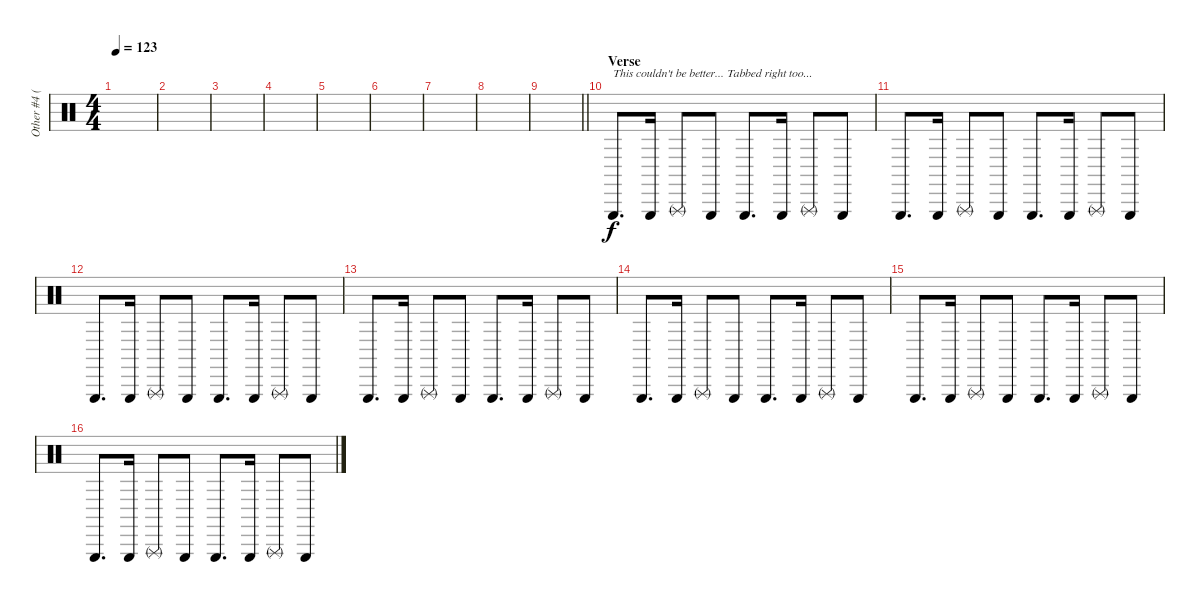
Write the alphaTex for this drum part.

\track ("Other #4 (Triangle)" "Other #4 (") {instrument percussion}
\staff {score}
\articulation defaults
\ts (4 4)
\tempo 123
\clef neutral
\ks c
|
|
|
|
|
|
|
|
\barLineRight lightlight
|
\section ("" "Verse")
"Triangle (hit)".8{d txt "This couldn't be better... Tabbed right too..."} "Triangle (hit)".16 "Triangle (rnute)".8 "Triangle (hit)".8 "Triangle (hit)".8{d} "Triangle (hit)".16 "Triangle (rnute)".8 "Triangle (hit)".8 |
"Triangle (hit)".8{d} "Triangle (hit)".16 "Triangle (rnute)".8 "Triangle (hit)".8 "Triangle (hit)".8{d} "Triangle (hit)".16 "Triangle (rnute)".8 "Triangle (hit)".8 |
"Triangle (hit)".8{d} "Triangle (hit)".16 "Triangle (rnute)".8 "Triangle (hit)".8 "Triangle (hit)".8{d} "Triangle (hit)".16 "Triangle (rnute)".8 "Triangle (hit)".8 |
"Triangle (hit)".8{d} "Triangle (hit)".16 "Triangle (rnute)".8 "Triangle (hit)".8 "Triangle (hit)".8{d} "Triangle (hit)".16 "Triangle (rnute)".8 "Triangle (hit)".8 |
"Triangle (hit)".8{d} "Triangle (hit)".16 "Triangle (rnute)".8 "Triangle (hit)".8 "Triangle (hit)".8{d} "Triangle (hit)".16 "Triangle (rnute)".8 "Triangle (hit)".8 |
"Triangle (hit)".8{d} "Triangle (hit)".16 "Triangle (rnute)".8 "Triangle (hit)".8 "Triangle (hit)".8{d} "Triangle (hit)".16 "Triangle (rnute)".8 "Triangle (hit)".8 |
"Triangle (hit)".8{d} "Triangle (hit)".16 "Triangle (rnute)".8 "Triangle (hit)".8 "Triangle (hit)".8{d} "Triangle (hit)".16 "Triangle (rnute)".8 "Triangle (hit)".8
